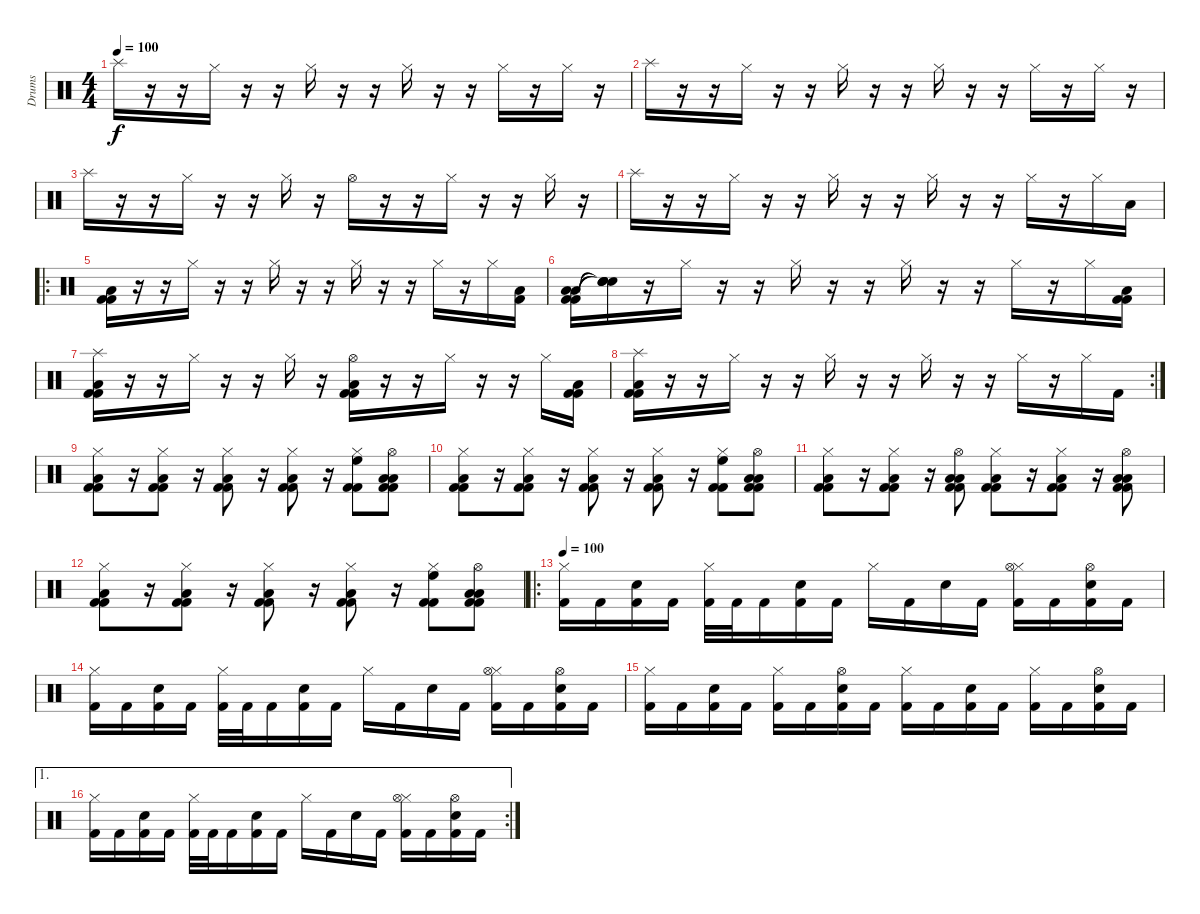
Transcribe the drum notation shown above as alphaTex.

\track ("Drums" "Drums") {instrument percussion}
\staff {score}
\articulation defaults
\ts (4 4)
\tempo 100
\tempo 76
\tempo 100
\clef neutral
\ks c "Splash (hit)".16{dy f}
r.16 r.16 "Hi-Hat (closed)".16 r.16 r.16 "Hi-Hat (closed)".16 r.16 r.16 "Hi-Hat (closed)".16 r.16 r.16 "Hi-Hat (closed)".16 r.16 "Hi-Hat (closed)".16 r.16 |
"Splash (hit)".16 r.16 r.16 "Hi-Hat (closed)".16 r.16 r.16 "Hi-Hat (closed)".16 r.16 r.16 "Hi-Hat (closed)".16 r.16 r.16 "Hi-Hat (closed)".16 r.16 "Hi-Hat (closed)".16 r.16 |
"Splash (hit)".16 r.16 r.16 "Hi-Hat (closed)".16 r.16 r.16 "Hi-Hat (closed)".16 r.16 "Hi-Hat (open)".16 r.16 r.16 "Hi-Hat (closed)".16 r.16 r.16 "Hi-Hat (closed)".16 r.16 |
"Splash (hit)".16 r.16 r.16 "Hi-Hat (closed)".16 r.16 r.16 "Hi-Hat (closed)".16 r.16 r.16 "Hi-Hat (closed)".16 r.16 r.16 "Hi-Hat (closed)".16 r.16 "Hi-Hat (closed)".16 "Low Tom (hit)".16 |
\ro
("Low Tom (hit)" "Kick (hit) 2" "Kick (hit) 2").16 r.16 r.16 "Hi-Hat (closed)".16 r.16 r.16 "Hi-Hat (closed)".16 r.16 r.16 "Hi-Hat (closed)".16 r.16 r.16 "Hi-Hat (closed)".16 r.16 "Hi-Hat (closed)".16 ("Low Tom (hit)" "Kick (hit) 2").16 |
("Low Tom (hit)" "Kick (hit) 2" "Low Tom (hit)" "Kick (hit) 2").16 ("Snare (hit)"{t} "Snare (hit)"{t} "Snare (hit)"{t} "Snare (hit)"{t}).16 r.16 "Hi-Hat (closed)".16 r.16 r.16 "Hi-Hat (closed)".16 r.16 r.16 "Hi-Hat (closed)".16 r.16 r.16 "Hi-Hat (closed)".16 r.16 "Hi-Hat (closed)".16 ("Low Tom (hit)" "Kick (hit) 2" "Kick (hit) 2").16 |
("Low Tom (hit)" "Kick (hit) 2" "Splash (hit)" "Kick (hit) 2").16 r.16 r.16 "Hi-Hat (closed)".16 r.16 r.16 "Hi-Hat (closed)".16 r.16 ("Low Tom (hit)" "Kick (hit) 2" "Hi-Hat (open)" "Kick (hit) 2").16 r.16 r.16 "Hi-Hat (closed)".16 r.16 r.16 "Hi-Hat (closed)".16 ("Low Tom (hit)" "Kick (hit) 2" "Kick (hit) 2").16 |
\rc 2
("Low Tom (hit)" "Kick (hit) 2" "Splash (hit)" "Kick (hit) 2").16 r.16 r.16 "Hi-Hat (closed)".16 r.16 r.16 "Hi-Hat (closed)".16 r.16 r.16 "Hi-Hat (closed)".16 r.16 r.16 "Hi-Hat (closed)".16 r.16 "Hi-Hat (closed)".16 "Kick (hit) 2".16 |
("Kick (hit) 2" "Hi-Hat (closed)" "Low Tom (hit)" "Kick (hit) 2").8 r.16 ("Kick (hit) 2" "Hi-Hat (closed)" "Low Tom (hit)" "Kick (hit) 2").8 r.16 ("Kick (hit) 2" "Hi-Hat (closed)" "Low Tom (hit)" "Kick (hit) 2").8 r.16 ("Kick (hit) 2" "Hi-Hat (closed)" "Low Tom (hit)" "Kick (hit) 2").8 r.16 ("Kick (hit) 2" "Hi-Hat (closed)" "High Floor Tom (hit)" "Kick (hit) 2").8 ("Kick (hit) 2" "Hi-Hat (open)" "Low Tom (hit)" "Low Tom (hit)" "Kick (hit) 2").8 |
("Kick (hit) 2" "Hi-Hat (closed)" "Low Tom (hit)" "Kick (hit) 2").8 r.16 ("Kick (hit) 2" "Hi-Hat (closed)" "Low Tom (hit)" "Kick (hit) 2").8 r.16 ("Kick (hit) 2" "Hi-Hat (closed)" "Low Tom (hit)" "Kick (hit) 2").8 r.16 ("Kick (hit) 2" "Hi-Hat (closed)" "Low Tom (hit)" "Kick (hit) 2").8 r.16 ("Kick (hit) 2" "Hi-Hat (closed)" "High Floor Tom (hit)" "Kick (hit) 2").8 ("Kick (hit) 2" "Hi-Hat (open)" "Low Tom (hit)" "Low Tom (hit)" "Kick (hit) 2").8 |
("Kick (hit) 2" "Hi-Hat (closed)" "Low Tom (hit)" "Kick (hit) 2").8 r.16 ("Kick (hit) 2" "Hi-Hat (closed)" "Low Tom (hit)" "Kick (hit) 2").8 r.16 ("Kick (hit) 2" "Hi-Hat (open)" "Low Tom (hit)" "Low Tom (hit)" "Kick (hit) 2").8 ("Kick (hit) 2" "Hi-Hat (closed)" "Low Tom (hit)" "Kick (hit) 2").8 r.16 ("Kick (hit) 2" "Hi-Hat (closed)" "Low Tom (hit)" "Kick (hit) 2").8 r.16 ("Kick (hit) 2" "Hi-Hat (open)" "Low Tom (hit)" "Low Tom (hit)" "Kick (hit) 2").8 |
("Kick (hit) 2" "Hi-Hat (closed)" "Low Tom (hit)" "Kick (hit) 2").8 r.16 ("Kick (hit) 2" "Hi-Hat (closed)" "Low Tom (hit)" "Kick (hit) 2").8 r.16 ("Kick (hit) 2" "Hi-Hat (closed)" "Low Tom (hit)" "Kick (hit) 2").8 r.16 ("Kick (hit) 2" "Hi-Hat (closed)" "Low Tom (hit)" "Kick (hit) 2").8 r.16 ("Kick (hit) 2" "Hi-Hat (closed)" "High Floor Tom (hit)" "Kick (hit) 2").8 ("Kick (hit) 2" "Hi-Hat (open)" "Low Tom (hit)" "Low Tom (hit)" "Kick (hit) 2").8 |
\ro
\tempo 100
("Kick (hit) 2" "Hi-Hat (closed)").16 "Kick (hit) 2".16 ("Kick (hit) 2" "Snare (hit) 2").16 "Kick (hit) 2".16 ("Kick (hit) 2" "Hi-Hat (closed)").32 "Kick (hit) 2".32 "Kick (hit) 2".16 ("Kick (hit) 2" "Snare (hit) 2").16 "Kick (hit) 2".16 "Hi-Hat (closed)".16 "Kick (hit) 2".16 "Snare (hit) 2".16 "Kick (hit) 2".16 ("Kick (hit) 2" "Hi-Hat (closed)" "Hi-Hat (open)").16 "Kick (hit) 2".16 ("Kick (hit) 2" "Snare (hit) 2" "Hi-Hat (open)").16 "Kick (hit) 2".16 |
("Kick (hit) 2" "Hi-Hat (closed)").16 "Kick (hit) 2".16 ("Kick (hit) 2" "Snare (hit) 2").16 "Kick (hit) 2".16 ("Kick (hit) 2" "Hi-Hat (closed)").32 "Kick (hit) 2".32 "Kick (hit) 2".16 ("Kick (hit) 2" "Snare (hit) 2").16 "Kick (hit) 2".16 "Hi-Hat (closed)".16 "Kick (hit) 2".16 "Snare (hit) 2".16 "Kick (hit) 2".16 ("Kick (hit) 2" "Hi-Hat (closed)" "Hi-Hat (open)").16 "Kick (hit) 2".16 ("Kick (hit) 2" "Snare (hit) 2" "Hi-Hat (open)").16 "Kick (hit) 2".16 |
("Kick (hit) 2" "Hi-Hat (closed)").16 "Kick (hit) 2".16 ("Kick (hit) 2" "Snare (hit) 2").16 "Kick (hit) 2".16 ("Kick (hit) 2" "Hi-Hat (closed)").16 "Kick (hit) 2".16 ("Kick (hit) 2" "Snare (hit) 2" "Hi-Hat (open)").16 "Kick (hit) 2".16 ("Kick (hit) 2" "Hi-Hat (closed)").16 "Kick (hit) 2".16 ("Kick (hit) 2" "Snare (hit) 2").16 "Kick (hit) 2".16 ("Kick (hit) 2" "Hi-Hat (closed)").16 "Kick (hit) 2".16 ("Kick (hit) 2" "Snare (hit) 2" "Hi-Hat (open)").16 "Kick (hit) 2".16 |
\ae 1
\rc 2
("Kick (hit) 2" "Hi-Hat (closed)").16 "Kick (hit) 2".16 ("Kick (hit) 2" "Snare (hit) 2").16 "Kick (hit) 2".16 ("Kick (hit) 2" "Hi-Hat (closed)").32 "Kick (hit) 2".32 "Kick (hit) 2".16 ("Kick (hit) 2" "Snare (hit) 2").16 "Kick (hit) 2".16 "Hi-Hat (closed)".16 "Kick (hit) 2".16 "Snare (hit) 2".16 "Kick (hit) 2".16 ("Kick (hit) 2" "Hi-Hat (closed)" "Hi-Hat (open)").16 "Kick (hit) 2".16 ("Kick (hit) 2" "Snare (hit) 2" "Hi-Hat (open)").16 "Kick (hit) 2".16
